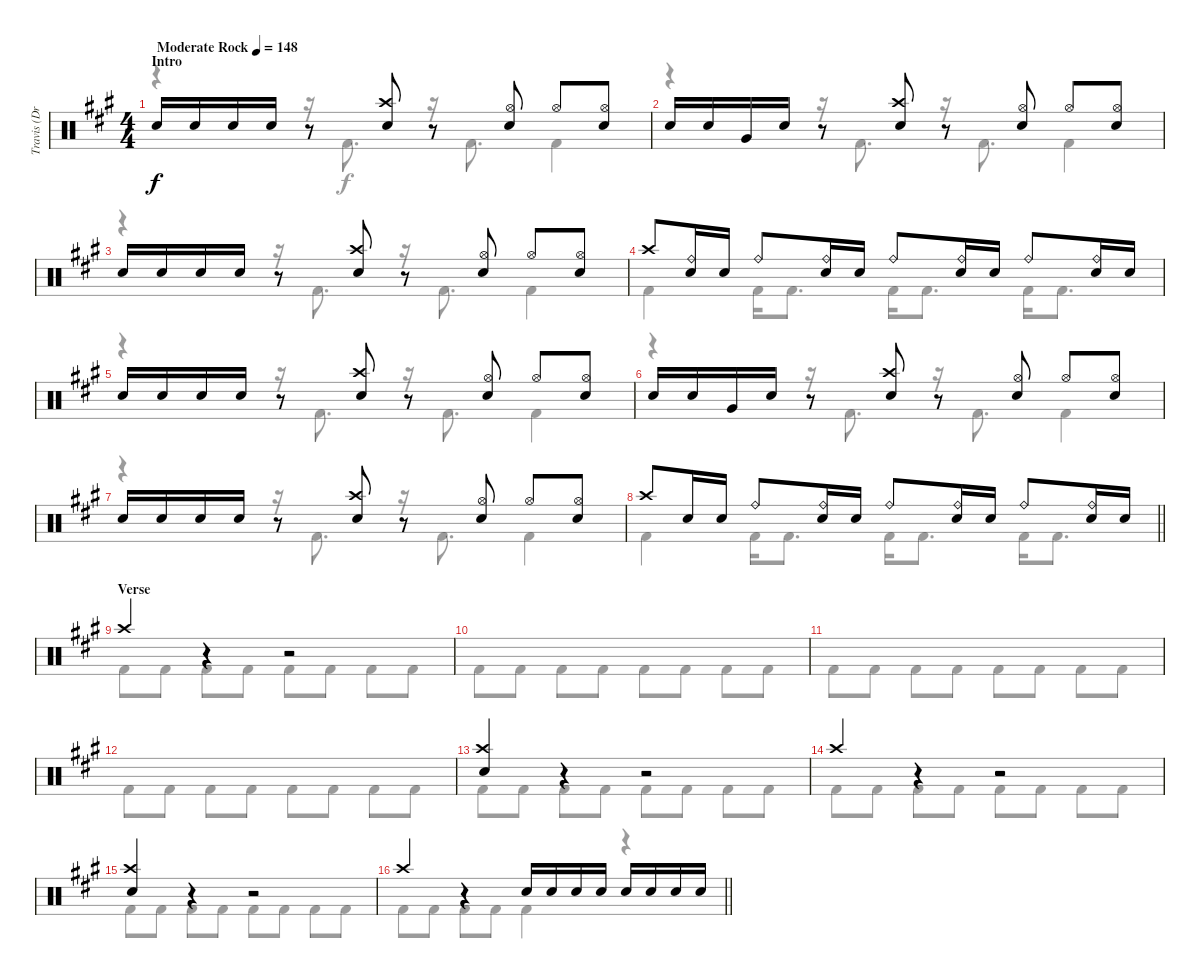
\track ("Travis (Drums)" "Travis (Dr") {instrument percussion}
\staff {score}
\articulation defaults
\voice
\ts (4 4)
\section ("" "Intro")
\tempo (148 "Moderate Rock")
\clef neutral
\ks a "Electric Snare (hit)".16{dy f} "Electric Snare (hit)".16 "Electric Snare (hit)".16 "Electric Snare (hit)".16
r.8 ("Crash high (hit)" "Electric Snare (hit)").8 r.8 ("Electric Snare (hit)" "Hi-Hat (open)").8 "Hi-Hat (open)".8 ("Electric Snare (hit)" "Hi-Hat (open)").8 |
"Electric Snare (hit)".16 "Electric Snare (hit)".16 "Very Low Tom (hit)".16 "Electric Snare (hit)".16 r.8 ("Crash high (hit)" "Electric Snare (hit)").8 r.8 ("Electric Snare (hit)" "Hi-Hat (open)").8 "Hi-Hat (open)".8 ("Electric Snare (hit)" "Hi-Hat (open)").8 |
"Electric Snare (hit)".16 "Electric Snare (hit)".16 "Electric Snare (hit)".16 "Electric Snare (hit)".16 r.8 ("Crash high (hit)" "Electric Snare (hit)").8 r.8 ("Electric Snare (hit)" "Hi-Hat (open)").8 "Hi-Hat (open)".8 ("Electric Snare (hit)" "Hi-Hat (open)").8 |
"Crash high (hit)".8 ("Ride (bell)" "Electric Snare (hit)").16 "Electric Snare (hit)".16 "Ride (bell)".8 ("Ride (bell)" "Electric Snare (hit)").16 "Electric Snare (hit)".16 "Ride (bell)".8 ("Ride (bell)" "Electric Snare (hit)").16 "Electric Snare (hit)".16 "Ride (bell)".8 ("Ride (bell)" "Electric Snare (hit)").16 "Electric Snare (hit)".16 |
"Electric Snare (hit)".16 "Electric Snare (hit)".16 "Electric Snare (hit)".16 "Electric Snare (hit)".16 r.8 ("Crash high (hit)" "Electric Snare (hit)").8 r.8 ("Electric Snare (hit)" "Hi-Hat (open)").8 "Hi-Hat (open)".8 ("Electric Snare (hit)" "Hi-Hat (open)").8 |
"Electric Snare (hit)".16 "Electric Snare (hit)".16 "Very Low Tom (hit)".16 "Electric Snare (hit)".16 r.8 ("Crash high (hit)" "Electric Snare (hit)").8 r.8 ("Electric Snare (hit)" "Hi-Hat (open)").8 "Hi-Hat (open)".8 ("Electric Snare (hit)" "Hi-Hat (open)").8 |
"Electric Snare (hit)".16 "Electric Snare (hit)".16 "Electric Snare (hit)".16 "Electric Snare (hit)".16 r.8 ("Crash high (hit)" "Electric Snare (hit)").8 r.8 ("Electric Snare (hit)" "Hi-Hat (open)").8 "Hi-Hat (open)".8 ("Electric Snare (hit)" "Hi-Hat (open)").8 |
\barLineRight lightlight "Crash high (hit)".8 "Electric Snare (hit)".16 "Electric Snare (hit)".16 "Ride (bell)".8
("Ride (bell)" "Electric Snare (hit)").16 "Electric Snare (hit)".16 "Ride (bell)".8 ("Ride (bell)" "Electric Snare (hit)").16 "Electric Snare (hit)".16 "Ride (bell)".8 ("Ride (bell)" "Electric Snare (hit)").16 "Electric Snare (hit)".16 |
\section ("" "Verse")
"Crash high (hit)".4 r.4 r.2 |
|
|
|
("Crash high (hit)" "Electric Snare (hit)").4 r.4 r.2 |
"Crash high (hit)".4 r.4 r.2 |
("Crash high (hit)" "Electric Snare (hit)").4 r.4 r.2 |
\barLineRight lightlight "Crash high (hit)".4
r.4 "Electric Snare (hit)".16 "Electric Snare (hit)".16 "Electric Snare (hit)".16 "Electric Snare (hit)".16 "Electric Snare (hit)".16 "Electric Snare (hit)".16 "Electric Snare (hit)".16 "Electric Snare (hit)".16
\voice
\clef neutral
\ottava regular
\simile none
\ks a
r.4{dy f} r.16 "Kick (hit) 2".8{d} r.16 "Kick (hit) 2".8{d} "Kick (hit) 2".4 |
r.4 r.16 "Kick (hit) 2".8{d} r.16 "Kick (hit) 2".8{d} "Kick (hit) 2".4 |
r.4 r.16 "Kick (hit) 2".8{d} r.16 "Kick (hit) 2".8{d} "Kick (hit) 2".4 |
"Kick (hit) 2".4 "Kick (hit) 2".16 "Kick (hit) 2".8{d} "Kick (hit) 2".16 "Kick (hit) 2".8{d} "Kick (hit) 2".16 "Kick (hit) 2".8{d} |
r.4 r.16 "Kick (hit) 2".8{d} r.16 "Kick (hit) 2".8{d} "Kick (hit) 2".4 |
r.4 r.16 "Kick (hit) 2".8{d} r.16 "Kick (hit) 2".8{d} "Kick (hit) 2".4 |
r.4 r.16 "Kick (hit) 2".8{d} r.16 "Kick (hit) 2".8{d} "Kick (hit) 2".4 |
\barLineRight lightlight "Kick (hit) 2".4 "Kick (hit) 2".16 "Kick (hit) 2".8{d} "Kick (hit) 2".16 "Kick (hit) 2".8{d} "Kick (hit) 2".16 "Kick (hit) 2".8{d}
|
"Kick (hit) 2".8 "Kick (hit) 2".8 "Kick (hit) 2".8 "Kick (hit) 2".8 "Kick (hit) 2".8 "Kick (hit) 2".8 "Kick (hit) 2".8 "Kick (hit) 2".8 |
"Kick (hit) 2".8 "Kick (hit) 2".8 "Kick (hit) 2".8 "Kick (hit) 2".8 "Kick (hit) 2".8 "Kick (hit) 2".8 "Kick (hit) 2".8 "Kick (hit) 2".8 |
"Kick (hit) 2".8 "Kick (hit) 2".8 "Kick (hit) 2".8 "Kick (hit) 2".8 "Kick (hit) 2".8 "Kick (hit) 2".8 "Kick (hit) 2".8 "Kick (hit) 2".8 |
"Kick (hit) 2".8 "Kick (hit) 2".8 "Kick (hit) 2".8 "Kick (hit) 2".8 "Kick (hit) 2".8 "Kick (hit) 2".8 "Kick (hit) 2".8 "Kick (hit) 2".8 |
"Kick (hit) 2".8 "Kick (hit) 2".8 "Kick (hit) 2".8 "Kick (hit) 2".8 "Kick (hit) 2".8 "Kick (hit) 2".8 "Kick (hit) 2".8 "Kick (hit) 2".8 |
"Kick (hit) 2".8 "Kick (hit) 2".8 "Kick (hit) 2".8 "Kick (hit) 2".8 "Kick (hit) 2".8 "Kick (hit) 2".8 "Kick (hit) 2".8 "Kick (hit) 2".8 |
"Kick (hit) 2".8 "Kick (hit) 2".8 "Kick (hit) 2".8 "Kick (hit) 2".8 "Kick (hit) 2".8 "Kick (hit) 2".8 "Kick (hit) 2".8 "Kick (hit) 2".8 |
\barLineRight lightlight "Kick (hit) 2".8 "Kick (hit) 2".8 "Kick (hit) 2".8 "Kick (hit) 2".8 "Kick (hit) 2".4
r.4
